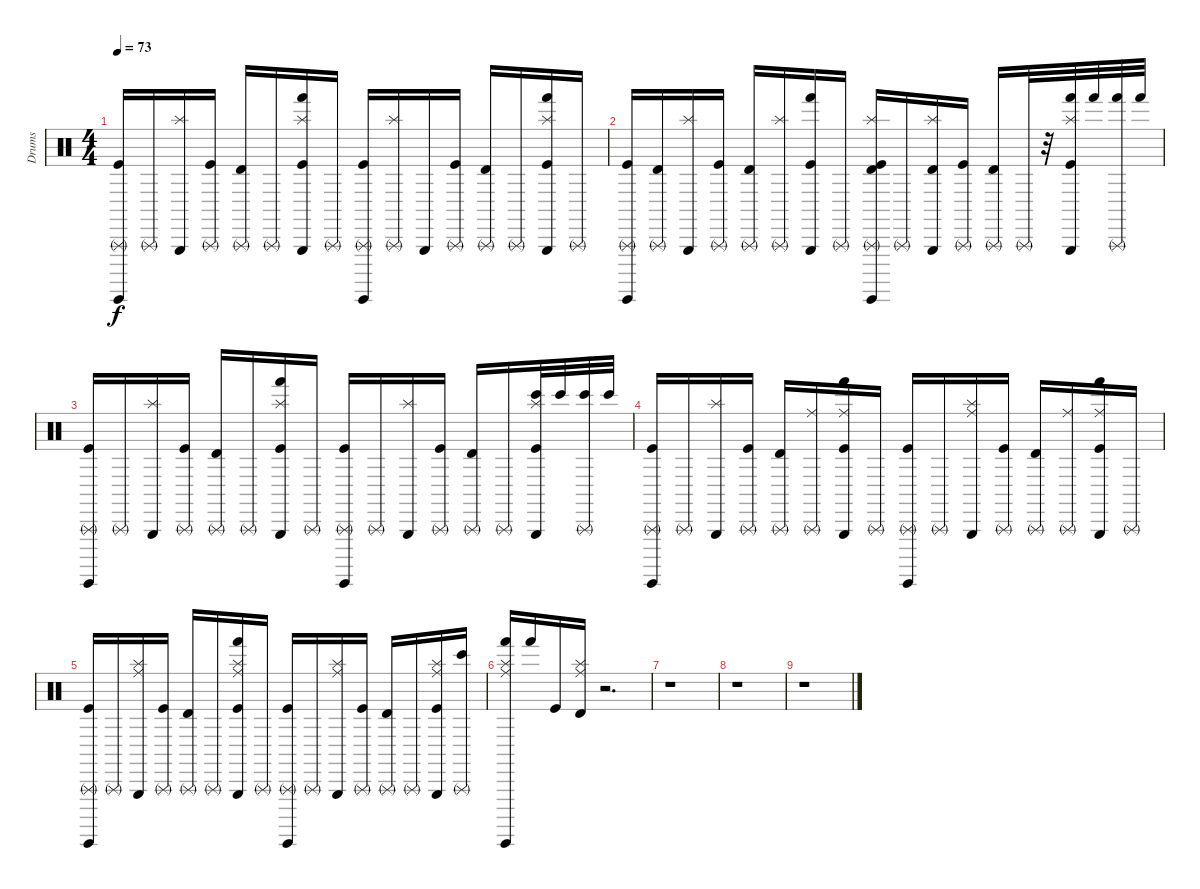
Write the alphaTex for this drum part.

\track ("Drums" "Drums") {instrument percussion}
\staff {score}
\articulation defaults
\ts (4 4)
\tempo 73
\clef neutral
\ks c
("Guiro (hit)" "Kick (hit)" "Triangle (rnute)").16{dy f} "Triangle (rnute)".16 ("Triangle (hit)" "Splash (hit)").16 ("Kick (hit)" "Triangle (rnute)").16 ("Timbale high (hit)" "Triangle (rnute)").16 "Triangle (rnute)".16 ("Hand (hit)" "Kick (hit)" "Triangle (hit)" "Splash (hit)").16 "Triangle (rnute)".16 ("Guiro (hit)" "Kick (hit)" "Triangle (rnute)").16 ("Triangle (rnute)" "Splash (hit)").16 "Triangle (hit)".16 ("Kick (hit)" "Triangle (rnute)").16 ("Timbale high (hit)" "Triangle (rnute)").16 "Triangle (rnute)".16 ("Hand (hit)" "Kick (hit)" "Triangle (hit)" "Splash (hit)").16 "Triangle (rnute)".16 |
("Guiro (hit)" "Kick (hit)" "Triangle (rnute)").16 ("Timbale high (hit)" "Triangle (rnute)").16 ("Triangle (hit)" "Splash (hit)").16 ("Kick (hit)" "Triangle (rnute)").16 ("Timbale high (hit)" "Triangle (rnute)").16 ("Triangle (rnute)" "Splash (hit)").16 ("Hand (hit)" "Kick (hit)" "Triangle (hit)").16 "Triangle (rnute)".16 ("Guiro (hit)" "Timbale high (hit)" "Kick (hit)" "Triangle (rnute)" "Splash (hit)").16 "Triangle (rnute)".16 ("Timbale high (hit)" "Triangle (hit)" "Splash (hit)").16 ("Kick (hit)" "Triangle (rnute)").16 ("Timbale high (hit)" "Triangle (rnute)").16 "Triangle (rnute)".32 r.32 ("Hand (hit)" "Kick (hit)" "Triangle (hit)" "Splash (hit)").32 "Hand (hit)".32 ("Hand (hit)" "Triangle (rnute)").32 "Hand (hit)".32 |
("Guiro (hit)" "Kick (hit)" "Triangle (rnute)").16 "Triangle (rnute)".16 ("Triangle (hit)" "Splash (hit)").16 ("Kick (hit)" "Triangle (rnute)").16 ("Timbale high (hit)" "Triangle (rnute)").16 "Triangle (rnute)".16 ("Hand (hit)" "Kick (hit)" "Triangle (hit)" "Splash (hit)").16 "Triangle (rnute)".16 ("Guiro (hit)" "Kick (hit)" "Triangle (rnute)").16 "Triangle (rnute)".16 ("Triangle (hit)" "Splash (hit)").16 ("Kick (hit)" "Triangle (rnute)").16 ("Timbale high (hit)" "Triangle (rnute)").16 "Triangle (rnute)".16 ("Bongo High (hit)" "Kick (hit)" "Triangle (hit)" "Splash (hit)").32 "Bongo High (hit)".32 ("Bongo High (hit)" "Triangle (rnute)").32 "Bongo High (hit)".32 |
("Guiro (hit)" "Kick (hit)" "Triangle (rnute)").16 "Triangle (rnute)".16 ("Triangle (hit)" "Splash (hit)").16 ("Kick (hit)" "Triangle (rnute)").16 ("Timbale high (hit)" "Triangle (rnute)").16 ("Triangle (rnute)" "Ride (middle)").16 ("Hand (hit)" "Kick (hit)" "Triangle (hit)" "Ride (middle)").16 "Triangle (rnute)".16 ("Guiro (hit)" "Kick (hit)" "Triangle (rnute)").16 "Triangle (rnute)".16 ("Triangle (hit)" "Splash (hit)" "Ride (middle)").16 ("Kick (hit)" "Triangle (rnute)").16 ("Timbale high (hit)" "Triangle (rnute)").16 ("Triangle (rnute)" "Ride (middle)").16 ("Hand (hit)" "Kick (hit)" "Triangle (hit)" "Ride (middle)").16 "Triangle (rnute)".16 |
("Guiro (hit)" "Kick (hit)" "Triangle (rnute)").16 "Triangle (rnute)".16 ("Triangle (hit)" "Splash (hit)" "Ride (middle)").16 ("Kick (hit)" "Triangle (rnute)").16 ("Timbale high (hit)" "Triangle (rnute)").16 "Triangle (rnute)".16 ("Hand (hit)" "Kick (hit)" "Triangle (hit)" "Splash (hit)" "Ride (middle)").16 "Triangle (rnute)".16 ("Guiro (hit)" "Kick (hit)" "Triangle (rnute)").16 "Triangle (rnute)".16 ("Triangle (hit)" "Splash (hit)" "Ride (middle)").16 ("Kick (hit)" "Triangle (rnute)").16 ("Timbale high (hit)" "Triangle (rnute)").16 "Triangle (rnute)".16 ("Kick (hit)" "Triangle (hit)" "Splash (hit)" "Ride (middle)").16 ("Bongo High (hit)" "Triangle (rnute)").16 |
("Guiro (hit)" "Hand (hit)" "Splash (hit)" "Ride (middle)").16 "Hand (hit)".16 "Kick (hit)".16 ("Timbale high (hit)" "Splash (hit)" "Ride (middle)").16 r.2{d} |
r.1 |
r.1 |
r.1
